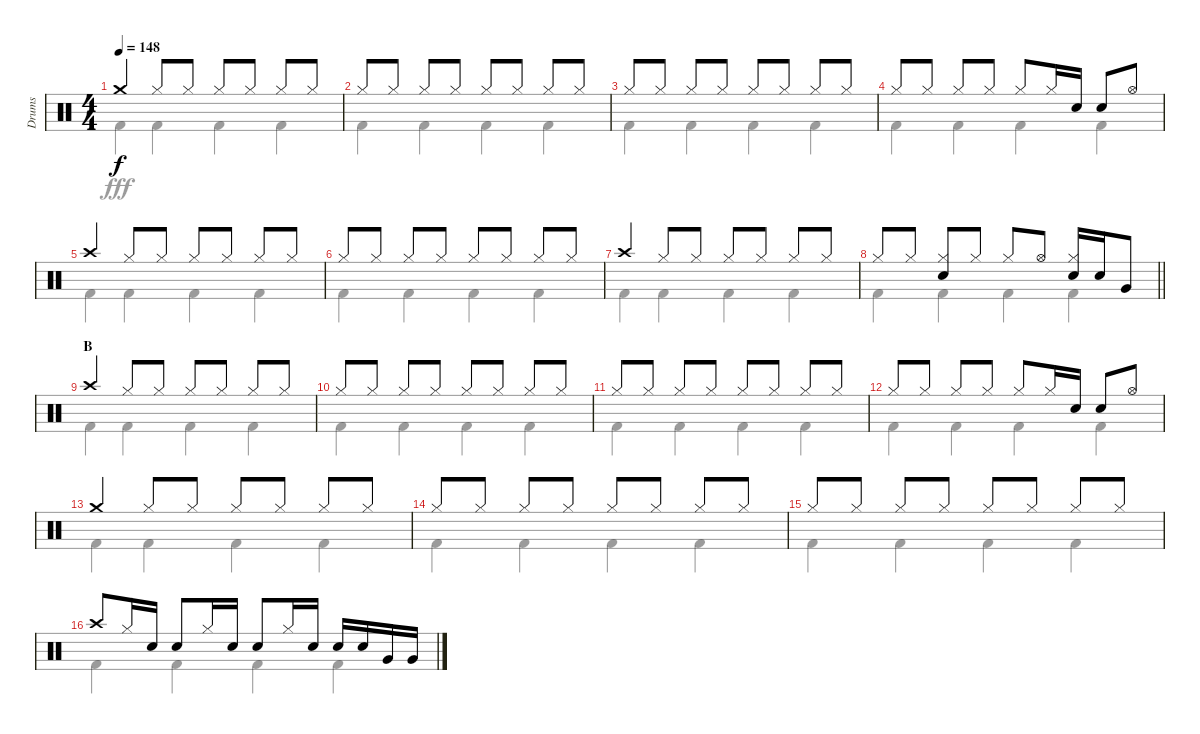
\track ("Drums" "Drums") {instrument percussion}
\staff {score}
\articulation defaults
\voice
\ts (4 4)
\tempo 148
\clef neutral
\ks c "Crash medium (hit)".4{dy f} "Hi-Hat (closed)".8 "Hi-Hat (closed)".8 "Hi-Hat (closed)".8 "Hi-Hat (closed)".8 "Hi-Hat (closed)".8 "Hi-Hat (closed)".8
|
"Hi-Hat (closed)".8 "Hi-Hat (closed)".8 "Hi-Hat (closed)".8 "Hi-Hat (closed)".8 "Hi-Hat (closed)".8 "Hi-Hat (closed)".8 "Hi-Hat (closed)".8 "Hi-Hat (closed)".8 |
"Hi-Hat (closed)".8 "Hi-Hat (closed)".8 "Hi-Hat (closed)".8 "Hi-Hat (closed)".8 "Hi-Hat (closed)".8 "Hi-Hat (closed)".8 "Hi-Hat (closed)".8 "Hi-Hat (closed)".8 |
"Hi-Hat (closed)".8 "Hi-Hat (closed)".8 "Hi-Hat (closed)".8 "Hi-Hat (closed)".8 "Hi-Hat (closed)".8 "Hi-Hat (closed)".16 "Snare (hit) 2".16 "Snare (hit) 2".8 "Hi-Hat (open)".8 |
"Crash high (hit)".4 "Hi-Hat (closed)".8 "Hi-Hat (closed)".8 "Hi-Hat (closed)".8 "Hi-Hat (closed)".8 "Hi-Hat (closed)".8 "Hi-Hat (closed)".8 |
"Hi-Hat (closed)".8 "Hi-Hat (closed)".8 "Hi-Hat (closed)".8 "Hi-Hat (closed)".8 "Hi-Hat (closed)".8 "Hi-Hat (closed)".8 "Hi-Hat (closed)".8 "Hi-Hat (closed)".8 |
"Crash high (hit)".4 "Hi-Hat (closed)".8 "Hi-Hat (closed)".8 "Hi-Hat (closed)".8 "Hi-Hat (closed)".8 "Hi-Hat (closed)".8 "Hi-Hat (closed)".8 |
\barLineRight lightlight "Hi-Hat (closed)".8 "Hi-Hat (closed)".8
("Hi-Hat (closed)" "Snare (hit) 2").8 "Hi-Hat (closed)".8 "Hi-Hat (closed)".8 "Hi-Hat (open)".8 ("Hi-Hat (closed)" "Snare (hit) 2").16 "Snare (hit) 2".16 "Very Low Tom (hit)".8 |
\section ("" "B")
"Crash high (hit)".4 "Hi-Hat (closed)".8 "Hi-Hat (closed)".8 "Hi-Hat (closed)".8 "Hi-Hat (closed)".8 "Hi-Hat (closed)".8 "Hi-Hat (closed)".8 |
"Hi-Hat (closed)".8 "Hi-Hat (closed)".8 "Hi-Hat (closed)".8 "Hi-Hat (closed)".8 "Hi-Hat (closed)".8 "Hi-Hat (closed)".8 "Hi-Hat (closed)".8 "Hi-Hat (closed)".8 |
"Hi-Hat (closed)".8 "Hi-Hat (closed)".8 "Hi-Hat (closed)".8 "Hi-Hat (closed)".8 "Hi-Hat (closed)".8 "Hi-Hat (closed)".8 "Hi-Hat (closed)".8 "Hi-Hat (closed)".8 |
"Hi-Hat (closed)".8 "Hi-Hat (closed)".8 "Hi-Hat (closed)".8 "Hi-Hat (closed)".8 "Hi-Hat (closed)".8 "Hi-Hat (closed)".16 "Snare (hit) 2".16 "Snare (hit) 2".8 "Hi-Hat (open)".8 |
"Crash medium (hit)".4 "Hi-Hat (closed)".8 "Hi-Hat (closed)".8 "Hi-Hat (closed)".8 "Hi-Hat (closed)".8 "Hi-Hat (closed)".8 "Hi-Hat (closed)".8 |
"Hi-Hat (closed)".8 "Hi-Hat (closed)".8 "Hi-Hat (closed)".8 "Hi-Hat (closed)".8 "Hi-Hat (closed)".8 "Hi-Hat (closed)".8 "Hi-Hat (closed)".8 "Hi-Hat (closed)".8 |
"Hi-Hat (closed)".8 "Hi-Hat (closed)".8 "Hi-Hat (closed)".8 "Hi-Hat (closed)".8 "Hi-Hat (closed)".8 "Hi-Hat (closed)".8 "Hi-Hat (closed)".8 "Hi-Hat (closed)".8 |
"Crash high (hit)".8 "Hi-Hat (closed)".16 "Snare (hit) 2".16 "Snare (hit) 2".8 "Hi-Hat (closed)".16 "Snare (hit) 2".16 "Snare (hit) 2".8 "Hi-Hat (closed)".16 "Snare (hit) 2".16 "Snare (hit) 2".16 "Snare (hit) 2".16 "Very Low Tom (hit)".16 "Very Low Tom (hit)".16
\voice
\clef neutral
\ottava regular
\simile none
\ks c "Kick (hit) 2".4{dy fff} "Kick (hit) 2".4 "Kick (hit) 2".4 "Kick (hit) 2".4
|
"Kick (hit) 2".4 "Kick (hit) 2".4 "Kick (hit) 2".4 "Kick (hit) 2".4 |
"Kick (hit) 2".4 "Kick (hit) 2".4 "Kick (hit) 2".4 "Kick (hit) 2".4 |
"Kick (hit) 2".4 "Kick (hit) 2".4 "Kick (hit) 2".4 "Kick (hit) 2".4 |
"Kick (hit) 2".4 "Kick (hit) 2".4 "Kick (hit) 2".4 "Kick (hit) 2".4 |
"Kick (hit) 2".4 "Kick (hit) 2".4 "Kick (hit) 2".4 "Kick (hit) 2".4 |
"Kick (hit) 2".4 "Kick (hit) 2".4 "Kick (hit) 2".4 "Kick (hit) 2".4 |
\barLineRight lightlight "Kick (hit) 2".4 "Kick (hit) 2".4 "Kick (hit) 2".4 "Kick (hit) 2".4
|
"Kick (hit) 2".4 "Kick (hit) 2".4 "Kick (hit) 2".4 "Kick (hit) 2".4 |
"Kick (hit) 2".4 "Kick (hit) 2".4 "Kick (hit) 2".4 "Kick (hit) 2".4 |
"Kick (hit) 2".4 "Kick (hit) 2".4 "Kick (hit) 2".4 "Kick (hit) 2".4 |
"Kick (hit) 2".4 "Kick (hit) 2".4 "Kick (hit) 2".4 "Kick (hit) 2".4 |
"Kick (hit) 2".4 "Kick (hit) 2".4 "Kick (hit) 2".4 "Kick (hit) 2".4 |
"Kick (hit) 2".4 "Kick (hit) 2".4 "Kick (hit) 2".4 "Kick (hit) 2".4 |
"Kick (hit) 2".4 "Kick (hit) 2".4 "Kick (hit) 2".4 "Kick (hit) 2".4 |
"Kick (hit) 2".4 "Kick (hit) 2".4 "Kick (hit) 2".4 "Kick (hit) 2".4
